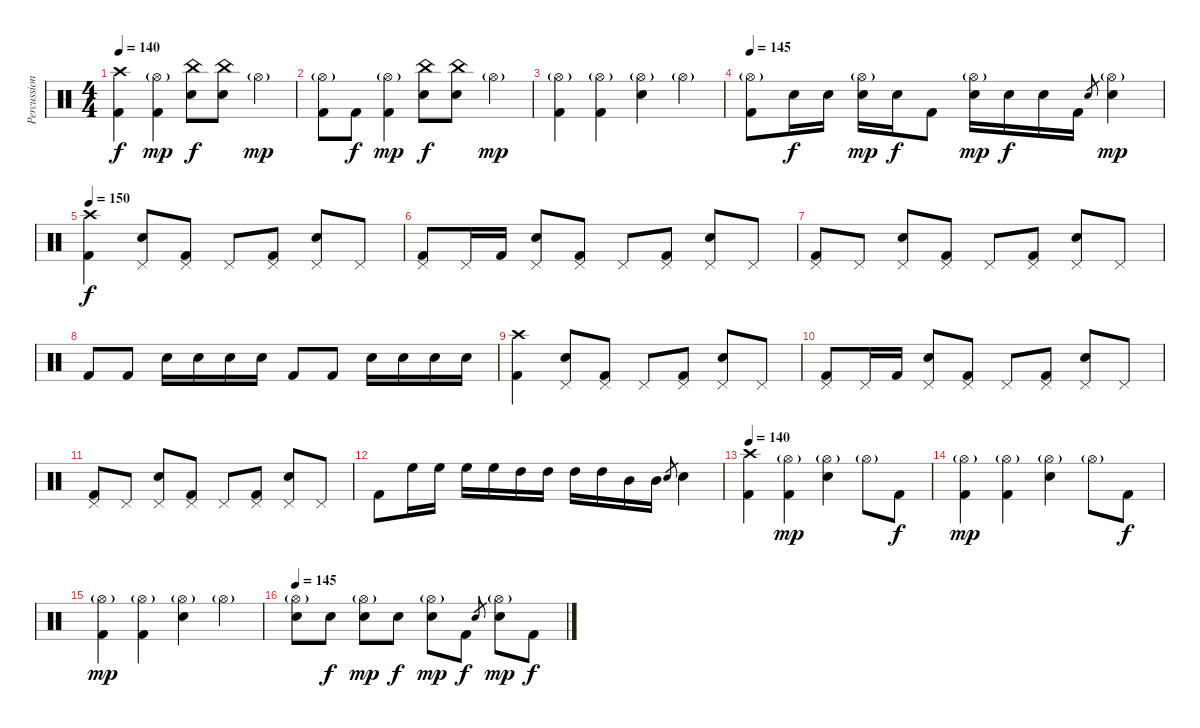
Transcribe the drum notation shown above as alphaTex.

\track ("Percussion" "Percussion") {instrument percussion}
\staff {score}
\articulation defaults
\ts (4 4)
\tempo 140
\clef neutral
\ks c
("Crash high (hit)" "Kick (hit) 2").4{dy f} ("Hi-Hat (open)"{g} "Kick (hit) 2").4{dy mp} ("China (hit)" "Snare (hit) 2").8{dy f} ("China (hit)" "Snare (hit) 2").8 "Hi-Hat (open)"{g}.4{dy mp} |
("Hi-Hat (open)"{g} "Kick (hit) 2").8 "Kick (hit) 2".8{dy f} ("Hi-Hat (open)"{g} "Kick (hit) 2").4{dy mp} ("China (hit)" "Snare (hit) 2").8{dy f} ("China (hit)" "Snare (hit) 2").8 "Hi-Hat (open)"{g}.4{dy mp} |
("Hi-Hat (open)"{g} "Kick (hit) 2").4 ("Hi-Hat (open)"{g} "Kick (hit) 2").4 ("Hi-Hat (open)"{g} "Snare (hit) 2").4 "Hi-Hat (open)"{g}.4 |
\tempo 145
("Hi-Hat (open)"{g} "Kick (hit) 2").8 "Snare (hit) 2".16{dy f} "Snare (hit) 2".16 ("Hi-Hat (open)"{g} "Snare (hit) 2").16{dy mp} "Snare (hit) 2".16{dy f} "Kick (hit) 2".8 ("Hi-Hat (open)"{g} "Snare (hit) 2").16{dy mp} "Snare (hit) 2".16{dy f} "Snare (hit) 2".16 "Kick (hit) 2".16 "Snare (hit) 2".8{gr} ("Hi-Hat (open)"{g} "Snare (hit) 2").4{dy mp} |
\tempo 150
("Crash high (hit)" "Kick (hit) 2").4{dy f} ("Pedal Hi-Hat (hit)" "Snare (hit) 2").8 ("Pedal Hi-Hat (hit)" "Kick (hit) 2").8 "Pedal Hi-Hat (hit)".8 ("Pedal Hi-Hat (hit)" "Kick (hit) 2").8 ("Pedal Hi-Hat (hit)" "Snare (hit) 2").8 "Pedal Hi-Hat (hit)".8 |
("Pedal Hi-Hat (hit)" "Kick (hit) 2").8 "Pedal Hi-Hat (hit)".16 "Kick (hit) 2".16 ("Pedal Hi-Hat (hit)" "Snare (hit) 2").8 ("Pedal Hi-Hat (hit)" "Kick (hit) 2").8 "Pedal Hi-Hat (hit)".8 ("Pedal Hi-Hat (hit)" "Kick (hit) 2").8 ("Pedal Hi-Hat (hit)" "Snare (hit) 2").8 "Pedal Hi-Hat (hit)".8 |
("Pedal Hi-Hat (hit)" "Kick (hit) 2").8 "Pedal Hi-Hat (hit)".8 ("Pedal Hi-Hat (hit)" "Snare (hit) 2").8 ("Pedal Hi-Hat (hit)" "Kick (hit) 2").8 "Pedal Hi-Hat (hit)".8 ("Pedal Hi-Hat (hit)" "Kick (hit) 2").8 ("Pedal Hi-Hat (hit)" "Snare (hit) 2").8 "Pedal Hi-Hat (hit)".8 |
"Kick (hit) 2".8 "Kick (hit) 2".8 "Snare (hit) 2".16 "Snare (hit) 2".16 "Snare (hit) 2".16 "Snare (hit) 2".16 "Kick (hit) 2".8 "Kick (hit) 2".8 "Snare (hit) 2".16 "Snare (hit) 2".16 "Snare (hit) 2".16 "Snare (hit) 2".16 |
("Crash high (hit)" "Kick (hit) 2").4 ("Pedal Hi-Hat (hit)" "Snare (hit) 2").8 ("Pedal Hi-Hat (hit)" "Kick (hit) 2").8 "Pedal Hi-Hat (hit)".8 ("Pedal Hi-Hat (hit)" "Kick (hit) 2").8 ("Pedal Hi-Hat (hit)" "Snare (hit) 2").8 "Pedal Hi-Hat (hit)".8 |
("Pedal Hi-Hat (hit)" "Kick (hit) 2").8 "Pedal Hi-Hat (hit)".16 "Kick (hit) 2".16 ("Pedal Hi-Hat (hit)" "Snare (hit) 2").8 ("Pedal Hi-Hat (hit)" "Kick (hit) 2").8 "Pedal Hi-Hat (hit)".8 ("Pedal Hi-Hat (hit)" "Kick (hit) 2").8 ("Pedal Hi-Hat (hit)" "Snare (hit) 2").8 "Pedal Hi-Hat (hit)".8 |
("Pedal Hi-Hat (hit)" "Kick (hit) 2").8 "Pedal Hi-Hat (hit)".8 ("Pedal Hi-Hat (hit)" "Snare (hit) 2").8 ("Pedal Hi-Hat (hit)" "Kick (hit) 2").8 "Pedal Hi-Hat (hit)".8 ("Pedal Hi-Hat (hit)" "Kick (hit) 2").8 ("Pedal Hi-Hat (hit)" "Snare (hit) 2").8 "Pedal Hi-Hat (hit)".8 |
"Kick (hit) 2".8 "High Floor Tom (hit)".16 "High Floor Tom (hit)".16 "High Floor Tom (hit)".16 "High Floor Tom (hit)".16 "High Tom (hit)".16 "High Tom (hit)".16 "High Tom (hit)".16 "High Tom (hit)".16 "Mid Tom (hit)".16 "Mid Tom (hit)".16 "Snare (hit) 2".8{gr} "Snare (hit) 2".4 |
\tempo 140
("Crash high (hit)" "Kick (hit) 2").4 ("Hi-Hat (open)"{g} "Kick (hit) 2").4{dy mp} ("Hi-Hat (open)"{g} "Snare (hit) 2").4 "Hi-Hat (open)"{g}.8 "Kick (hit) 2".8{dy f} |
("Hi-Hat (open)"{g} "Kick (hit) 2").4{dy mp} ("Hi-Hat (open)"{g} "Kick (hit) 2").4 ("Hi-Hat (open)"{g} "Snare (hit) 2").4 "Hi-Hat (open)"{g}.8 "Kick (hit) 2".8{dy f} |
("Hi-Hat (open)"{g} "Kick (hit) 2").4{dy mp} ("Hi-Hat (open)"{g} "Kick (hit) 2").4 ("Hi-Hat (open)"{g} "Snare (hit) 2").4 "Hi-Hat (open)"{g}.4 |
\tempo 145
("Hi-Hat (open)"{g} "Snare (hit) 2").8 "Snare (hit) 2".8{dy f} ("Hi-Hat (open)"{g} "Snare (hit) 2").8{dy mp} "Snare (hit) 2".8{dy f} ("Hi-Hat (open)"{g} "Snare (hit) 2").8{dy mp} "Kick (hit) 2".8{dy f} "Snare (hit) 2".8{gr} ("Hi-Hat (open)"{g} "Snare (hit) 2").8{dy mp} "Kick (hit) 2".8{dy f}
